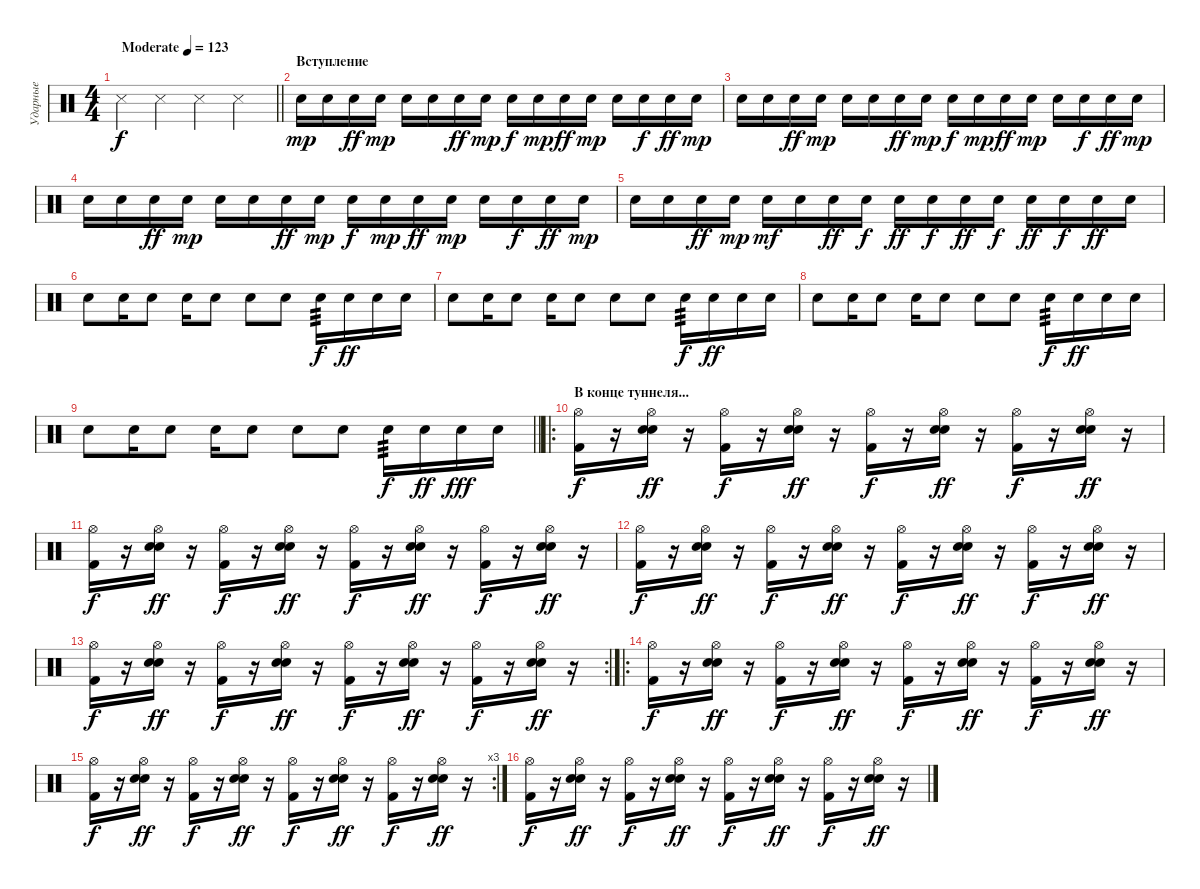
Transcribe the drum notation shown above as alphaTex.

\track ("Ударные" "Ударные") {instrument percussion}
\staff {score}
\articulation defaults
\ts (4 4)
\tempo (123 "Moderate")
\clef neutral
\barLineRight lightlight
\ks c "Snare (side stick) 3".4{dy f} "Snare (side stick) 3".4 "Snare (side stick) 3".4 "Snare (side stick) 3".4
|
\section ("" "Вступление")
"Snare (hit) 2".16{dy mp} "Snare (hit) 2".16 "Snare (hit) 2".16{dy ff} "Snare (hit) 2".16{dy mp} "Snare (hit) 2".16 "Snare (hit) 2".16 "Snare (hit) 2".16{dy ff} "Snare (hit) 2".16{dy mp} "Snare (hit) 2".16{dy f} "Snare (hit) 2".16{dy mp} "Snare (hit) 2".16{dy ff} "Snare (hit) 2".16{dy mp} "Snare (hit) 2".16 "Snare (hit) 2".16{dy f} "Snare (hit) 2".16{dy ff} "Snare (hit) 2".16{dy mp} |
"Snare (hit) 2".16 "Snare (hit) 2".16 "Snare (hit) 2".16{dy ff} "Snare (hit) 2".16{dy mp} "Snare (hit) 2".16 "Snare (hit) 2".16 "Snare (hit) 2".16{dy ff} "Snare (hit) 2".16{dy mp} "Snare (hit) 2".16{dy f} "Snare (hit) 2".16{dy mp} "Snare (hit) 2".16{dy ff} "Snare (hit) 2".16{dy mp} "Snare (hit) 2".16 "Snare (hit) 2".16{dy f} "Snare (hit) 2".16{dy ff} "Snare (hit) 2".16{dy mp} |
"Snare (hit) 2".16 "Snare (hit) 2".16 "Snare (hit) 2".16{dy ff} "Snare (hit) 2".16{dy mp} "Snare (hit) 2".16 "Snare (hit) 2".16 "Snare (hit) 2".16{dy ff} "Snare (hit) 2".16{dy mp} "Snare (hit) 2".16{dy f} "Snare (hit) 2".16{dy mp} "Snare (hit) 2".16{dy ff} "Snare (hit) 2".16{dy mp} "Snare (hit) 2".16 "Snare (hit) 2".16{dy f} "Snare (hit) 2".16{dy ff} "Snare (hit) 2".16{dy mp} |
"Snare (hit) 2".16 "Snare (hit) 2".16 "Snare (hit) 2".16{dy ff} "Snare (hit) 2".16{dy mp} "Snare (hit) 2".16{dy mf} "Snare (hit) 2".16 "Snare (hit) 2".16{dy ff} "Snare (hit) 2".16{dy f} "Snare (hit) 2".16{dy ff} "Snare (hit) 2".16{dy f} "Snare (hit) 2".16{dy ff} "Snare (hit) 2".16{dy f} "Snare (hit) 2".16{dy ff} "Snare (hit) 2".16{dy f} "Snare (hit) 2".16{dy ff} "Snare (hit) 2".16 |
"Snare (hit) 2".8 "Snare (hit) 2".16 "Snare (hit) 2".8 "Snare (hit) 2".16 "Snare (hit) 2".8 "Snare (hit) 2".8 "Snare (hit) 2".8 "Snare (hit) 2".16{tp 3 dy f} "Snare (hit) 2".16{dy ff} "Snare (hit) 2".16 "Snare (hit) 2".16 |
"Snare (hit) 2".8 "Snare (hit) 2".16 "Snare (hit) 2".8 "Snare (hit) 2".16 "Snare (hit) 2".8 "Snare (hit) 2".8 "Snare (hit) 2".8 "Snare (hit) 2".16{tp 3 dy f} "Snare (hit) 2".16{dy ff} "Snare (hit) 2".16 "Snare (hit) 2".16 |
"Snare (hit) 2".8 "Snare (hit) 2".16 "Snare (hit) 2".8 "Snare (hit) 2".16 "Snare (hit) 2".8 "Snare (hit) 2".8 "Snare (hit) 2".8 "Snare (hit) 2".16{tp 3 dy f} "Snare (hit) 2".16{dy ff} "Snare (hit) 2".16 "Snare (hit) 2".16 |
\barLineRight lightlight "Snare (hit) 2".8 "Snare (hit) 2".16 "Snare (hit) 2".8 "Snare (hit) 2".16 "Snare (hit) 2".8 "Snare (hit) 2".8 "Snare (hit) 2".8 "Snare (hit) 2".16{tp 3 dy f} "Snare (hit) 2".16{dy ff} "Snare (hit) 2".16{dy fff} "Snare (hit) 2".16
|
\ro
\section ("" "В конце туннеля...")
("Hi-Hat (open)" "Kick (hit) 2").16{dy f} r.16 ("Hi-Hat (open)" "Electric Snare (hit)" "Snare (hit) 2").16{dy ff} r.16 ("Hi-Hat (open)" "Kick (hit) 2").16{dy f} r.16 ("Hi-Hat (open)" "Electric Snare (hit)" "Snare (hit) 2").16{dy ff} r.16 ("Hi-Hat (open)" "Kick (hit) 2").16{dy f} r.16 ("Hi-Hat (open)" "Electric Snare (hit)" "Snare (hit) 2").16{dy ff} r.16 ("Hi-Hat (open)" "Kick (hit) 2").16{dy f} r.16 ("Hi-Hat (open)" "Electric Snare (hit)" "Snare (hit) 2").16{dy ff} r.16 |
("Hi-Hat (open)" "Kick (hit) 2").16{dy f} r.16 ("Hi-Hat (open)" "Electric Snare (hit)" "Snare (hit) 2").16{dy ff} r.16 ("Hi-Hat (open)" "Kick (hit) 2").16{dy f} r.16 ("Hi-Hat (open)" "Electric Snare (hit)" "Snare (hit) 2").16{dy ff} r.16 ("Hi-Hat (open)" "Kick (hit) 2").16{dy f} r.16 ("Hi-Hat (open)" "Electric Snare (hit)" "Snare (hit) 2").16{dy ff} r.16 ("Hi-Hat (open)" "Kick (hit) 2").16{dy f} r.16 ("Hi-Hat (open)" "Electric Snare (hit)" "Snare (hit) 2").16{dy ff} r.16 |
("Hi-Hat (open)" "Kick (hit) 2").16{dy f} r.16 ("Hi-Hat (open)" "Electric Snare (hit)" "Snare (hit) 2").16{dy ff} r.16 ("Hi-Hat (open)" "Kick (hit) 2").16{dy f} r.16 ("Hi-Hat (open)" "Electric Snare (hit)" "Snare (hit) 2").16{dy ff} r.16 ("Hi-Hat (open)" "Kick (hit) 2").16{dy f} r.16 ("Hi-Hat (open)" "Electric Snare (hit)" "Snare (hit) 2").16{dy ff} r.16 ("Hi-Hat (open)" "Kick (hit) 2").16{dy f} r.16 ("Hi-Hat (open)" "Electric Snare (hit)" "Snare (hit) 2").16{dy ff} r.16 |
\rc 2
("Hi-Hat (open)" "Kick (hit) 2").16{dy f} r.16 ("Hi-Hat (open)" "Electric Snare (hit)" "Snare (hit) 2").16{dy ff} r.16 ("Hi-Hat (open)" "Kick (hit) 2").16{dy f} r.16 ("Hi-Hat (open)" "Electric Snare (hit)" "Snare (hit) 2").16{dy ff} r.16 ("Hi-Hat (open)" "Kick (hit) 2").16{dy f} r.16 ("Hi-Hat (open)" "Electric Snare (hit)" "Snare (hit) 2").16{dy ff} r.16 ("Hi-Hat (open)" "Kick (hit) 2").16{dy f} r.16 ("Hi-Hat (open)" "Electric Snare (hit)" "Snare (hit) 2").16{dy ff} r.16 |
\ro
("Hi-Hat (open)" "Kick (hit) 2").16{dy f} r.16 ("Hi-Hat (open)" "Electric Snare (hit)" "Snare (hit) 2").16{dy ff} r.16 ("Hi-Hat (open)" "Kick (hit) 2").16{dy f} r.16 ("Hi-Hat (open)" "Electric Snare (hit)" "Snare (hit) 2").16{dy ff} r.16 ("Hi-Hat (open)" "Kick (hit) 2").16{dy f} r.16 ("Hi-Hat (open)" "Electric Snare (hit)" "Snare (hit) 2").16{dy ff} r.16 ("Hi-Hat (open)" "Kick (hit) 2").16{dy f} r.16 ("Hi-Hat (open)" "Electric Snare (hit)" "Snare (hit) 2").16{dy ff} r.16 |
\rc 3
("Hi-Hat (open)" "Kick (hit) 2").16{dy f} r.16 ("Hi-Hat (open)" "Electric Snare (hit)" "Snare (hit) 2").16{dy ff} r.16 ("Hi-Hat (open)" "Kick (hit) 2").16{dy f} r.16 ("Hi-Hat (open)" "Electric Snare (hit)" "Snare (hit) 2").16{dy ff} r.16 ("Hi-Hat (open)" "Kick (hit) 2").16{dy f} r.16 ("Hi-Hat (open)" "Electric Snare (hit)" "Snare (hit) 2").16{dy ff} r.16 ("Hi-Hat (open)" "Kick (hit) 2").16{dy f} r.16 ("Hi-Hat (open)" "Electric Snare (hit)" "Snare (hit) 2").16{dy ff} r.16 |
("Hi-Hat (open)" "Kick (hit) 2").16{dy f} r.16 ("Hi-Hat (open)" "Electric Snare (hit)" "Snare (hit) 2").16{dy ff} r.16 ("Hi-Hat (open)" "Kick (hit) 2").16{dy f} r.16 ("Hi-Hat (open)" "Electric Snare (hit)" "Snare (hit) 2").16{dy ff} r.16 ("Hi-Hat (open)" "Kick (hit) 2").16{dy f} r.16 ("Hi-Hat (open)" "Electric Snare (hit)" "Snare (hit) 2").16{dy ff} r.16 ("Hi-Hat (open)" "Kick (hit) 2").16{dy f} r.16 ("Hi-Hat (open)" "Electric Snare (hit)" "Snare (hit) 2").16{dy ff} r.16
